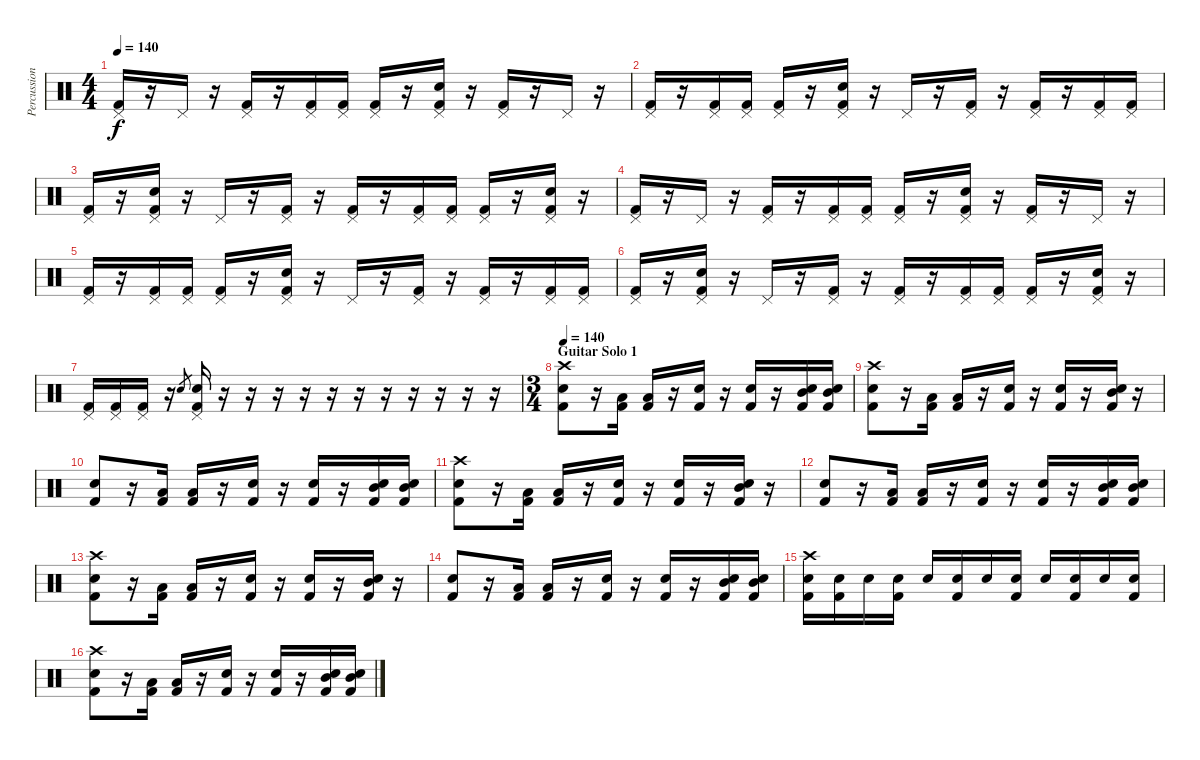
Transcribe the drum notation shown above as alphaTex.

\track ("Percussion" "Percussion") {instrument percussion}
\staff {score}
\articulation defaults
\ts (4 4)
\tempo 140
\clef neutral
\ks c
("Pedal Hi-Hat (hit)" "Kick (hit) 2").16{dy f} r.16 "Pedal Hi-Hat (hit)".16 r.16 ("Pedal Hi-Hat (hit)" "Kick (hit) 2").16 r.16 ("Pedal Hi-Hat (hit)" "Kick (hit) 2").16 ("Pedal Hi-Hat (hit)" "Kick (hit) 2").16 ("Pedal Hi-Hat (hit)" "Kick (hit) 2").16 r.16 ("Snare (hit) 2" "Pedal Hi-Hat (hit)" "Kick (hit) 2").16 r.16 ("Pedal Hi-Hat (hit)" "Kick (hit) 2").16 r.16 "Pedal Hi-Hat (hit)".16 r.16 |
("Pedal Hi-Hat (hit)" "Kick (hit) 2").16 r.16 ("Pedal Hi-Hat (hit)" "Kick (hit) 2").16 ("Pedal Hi-Hat (hit)" "Kick (hit) 2").16 ("Pedal Hi-Hat (hit)" "Kick (hit) 2").16 r.16 ("Snare (hit) 2" "Pedal Hi-Hat (hit)" "Kick (hit) 2").16 r.16 "Pedal Hi-Hat (hit)".16 r.16 ("Pedal Hi-Hat (hit)" "Kick (hit) 2").16 r.16 ("Pedal Hi-Hat (hit)" "Kick (hit) 2").16 r.16 ("Pedal Hi-Hat (hit)" "Kick (hit) 2").16 ("Pedal Hi-Hat (hit)" "Kick (hit) 2").16 |
("Pedal Hi-Hat (hit)" "Kick (hit) 2").16 r.16 ("Snare (hit) 2" "Pedal Hi-Hat (hit)" "Kick (hit) 2").16 r.16 "Pedal Hi-Hat (hit)".16 r.16 ("Pedal Hi-Hat (hit)" "Kick (hit) 2").16 r.16 ("Pedal Hi-Hat (hit)" "Kick (hit) 2").16 r.16 ("Pedal Hi-Hat (hit)" "Kick (hit) 2").16 ("Pedal Hi-Hat (hit)" "Kick (hit) 2").16 ("Pedal Hi-Hat (hit)" "Kick (hit) 2").16 r.16 ("Snare (hit) 2" "Pedal Hi-Hat (hit)" "Kick (hit) 2").16 r.16 |
("Pedal Hi-Hat (hit)" "Kick (hit) 2").16 r.16 "Pedal Hi-Hat (hit)".16 r.16 ("Pedal Hi-Hat (hit)" "Kick (hit) 2").16 r.16 ("Pedal Hi-Hat (hit)" "Kick (hit) 2").16 ("Pedal Hi-Hat (hit)" "Kick (hit) 2").16 ("Pedal Hi-Hat (hit)" "Kick (hit) 2").16 r.16 ("Snare (hit) 2" "Pedal Hi-Hat (hit)" "Kick (hit) 2").16 r.16 ("Pedal Hi-Hat (hit)" "Kick (hit) 2").16 r.16 "Pedal Hi-Hat (hit)".16 r.16 |
("Pedal Hi-Hat (hit)" "Kick (hit) 2").16 r.16 ("Pedal Hi-Hat (hit)" "Kick (hit) 2").16 ("Pedal Hi-Hat (hit)" "Kick (hit) 2").16 ("Pedal Hi-Hat (hit)" "Kick (hit) 2").16 r.16 ("Snare (hit) 2" "Pedal Hi-Hat (hit)" "Kick (hit) 2").16 r.16 "Pedal Hi-Hat (hit)".16 r.16 ("Pedal Hi-Hat (hit)" "Kick (hit) 2").16 r.16 ("Pedal Hi-Hat (hit)" "Kick (hit) 2").16 r.16 ("Pedal Hi-Hat (hit)" "Kick (hit) 2").16 ("Pedal Hi-Hat (hit)" "Kick (hit) 2").16 |
("Pedal Hi-Hat (hit)" "Kick (hit) 2").16 r.16 ("Snare (hit) 2" "Pedal Hi-Hat (hit)" "Kick (hit) 2").16 r.16 "Pedal Hi-Hat (hit)".16 r.16 ("Pedal Hi-Hat (hit)" "Kick (hit) 2").16 r.16 ("Pedal Hi-Hat (hit)" "Kick (hit) 2").16 r.16 ("Pedal Hi-Hat (hit)" "Kick (hit) 2").16 ("Pedal Hi-Hat (hit)" "Kick (hit) 2").16 ("Pedal Hi-Hat (hit)" "Kick (hit) 2").16 r.16 ("Snare (hit) 2" "Pedal Hi-Hat (hit)" "Kick (hit) 2").16 r.16 |
("Pedal Hi-Hat (hit)" "Kick (hit) 2").16 ("Pedal Hi-Hat (hit)" "Kick (hit) 2").16 ("Pedal Hi-Hat (hit)" "Kick (hit) 2").16 r.16 "Snare (hit) 2".8{gr} ("Snare (hit) 2" "Pedal Hi-Hat (hit)" "Kick (hit) 2").16 r.16 r.16 r.16 r.16 r.16 r.16 r.16 r.16 r.16 r.16 r.16 |
\ts (3 4)
\section ("" "Guitar Solo 1")
\tempo 140
("Crash high (hit)" "Snare (hit) 2" "Kick (hit) 2").8 r.16 ("Low Tom (hit)" "Kick (hit) 2").16 ("Low Tom (hit)" "Kick (hit) 2").16 r.16 ("Electric Snare (hit)" "Kick (hit) 2").16 r.16 ("Electric Snare (hit)" "Kick (hit) 2").16 r.16 ("Snare (hit) 2" "Mid Tom (hit)" "Kick (hit) 2").16 ("Snare (hit) 2" "Mid Tom (hit)" "Kick (hit) 2").16 |
("Crash high (hit)" "Snare (hit) 2" "Kick (hit) 2").8 r.16 ("Low Tom (hit)" "Kick (hit) 2").16 ("Low Tom (hit)" "Kick (hit) 2").16 r.16 ("Electric Snare (hit)" "Kick (hit) 2").16 r.16 ("Electric Snare (hit)" "Kick (hit) 2").16 r.16 ("Snare (hit) 2" "Mid Tom (hit)" "Kick (hit) 2").16 r.16 |
("Snare (hit) 2" "Kick (hit) 2").8 r.16 ("Low Tom (hit)" "Kick (hit) 2").16 ("Low Tom (hit)" "Kick (hit) 2").16 r.16 ("Electric Snare (hit)" "Kick (hit) 2").16 r.16 ("Electric Snare (hit)" "Kick (hit) 2").16 r.16 ("Snare (hit) 2" "Mid Tom (hit)" "Kick (hit) 2").16 ("Snare (hit) 2" "Mid Tom (hit)" "Kick (hit) 2").16 |
("Crash high (hit)" "Snare (hit) 2" "Kick (hit) 2").8 r.16 ("Low Tom (hit)" "Kick (hit) 2").16 ("Low Tom (hit)" "Kick (hit) 2").16 r.16 ("Electric Snare (hit)" "Kick (hit) 2").16 r.16 ("Electric Snare (hit)" "Kick (hit) 2").16 r.16 ("Snare (hit) 2" "Mid Tom (hit)" "Kick (hit) 2").16 r.16 |
("Snare (hit) 2" "Kick (hit) 2").8 r.16 ("Low Tom (hit)" "Kick (hit) 2").16 ("Low Tom (hit)" "Kick (hit) 2").16 r.16 ("Electric Snare (hit)" "Kick (hit) 2").16 r.16 ("Electric Snare (hit)" "Kick (hit) 2").16 r.16 ("Snare (hit) 2" "Mid Tom (hit)" "Kick (hit) 2").16 ("Snare (hit) 2" "Mid Tom (hit)" "Kick (hit) 2").16 |
("Crash high (hit)" "Snare (hit) 2" "Kick (hit) 2").8 r.16 ("Low Tom (hit)" "Kick (hit) 2").16 ("Low Tom (hit)" "Kick (hit) 2").16 r.16 ("Electric Snare (hit)" "Kick (hit) 2").16 r.16 ("Electric Snare (hit)" "Kick (hit) 2").16 r.16 ("Snare (hit) 2" "Mid Tom (hit)" "Kick (hit) 2").16 r.16 |
("Snare (hit) 2" "Kick (hit) 2").8 r.16 ("Low Tom (hit)" "Kick (hit) 2").16 ("Low Tom (hit)" "Kick (hit) 2").16 r.16 ("Electric Snare (hit)" "Kick (hit) 2").16 r.16 ("Electric Snare (hit)" "Kick (hit) 2").16 r.16 ("Snare (hit) 2" "Mid Tom (hit)" "Kick (hit) 2").16 ("Snare (hit) 2" "Mid Tom (hit)" "Kick (hit) 2").16 |
("Crash high (hit)" "Snare (hit) 2" "Kick (hit) 2").16 ("Electric Snare (hit)" "Kick (hit) 2").16 "Electric Snare (hit)".16 ("Electric Snare (hit)" "Kick (hit) 2").16 "Snare (hit) 2".16 ("Snare (hit) 2" "Kick (hit) 2").16 "Electric Snare (hit)".16 ("Electric Snare (hit)" "Kick (hit) 2").16 "Electric Snare (hit)".16 ("Snare (hit) 2" "Kick (hit) 2").16 "Snare (hit) 2".16 ("Snare (hit) 2" "Kick (hit) 2").16 |
("Crash high (hit)" "Snare (hit) 2" "Kick (hit) 2").8 r.16 ("Low Tom (hit)" "Kick (hit) 2").16 ("Low Tom (hit)" "Kick (hit) 2").16 r.16 ("Electric Snare (hit)" "Kick (hit) 2").16 r.16 ("Electric Snare (hit)" "Kick (hit) 2").16 r.16 ("Snare (hit) 2" "Mid Tom (hit)" "Kick (hit) 2").16 ("Snare (hit) 2" "Mid Tom (hit)" "Kick (hit) 2").16
